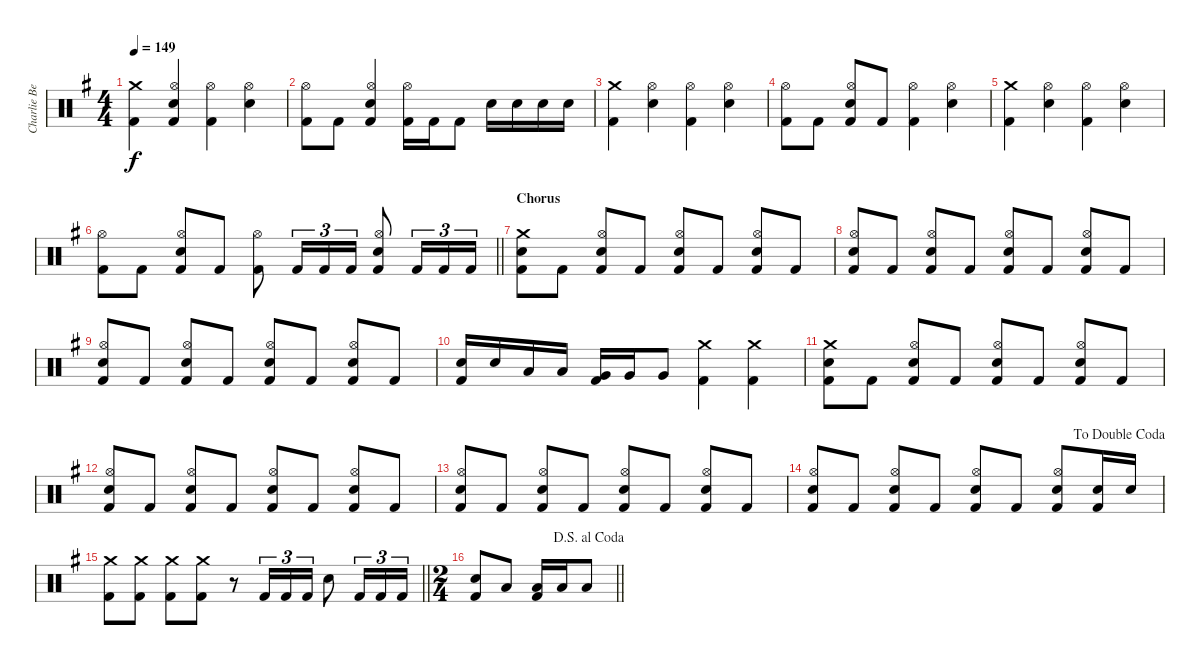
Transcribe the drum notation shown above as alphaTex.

\track ("Charlie Benate" "Charlie Be") {instrument percussion}
\staff {score}
\articulation defaults
\ts (4 4)
\tempo 149
\clef neutral
\ks g
("Crash medium (hit)" "Kick (hit) 2").4{dy f} ("Hi-Hat (open)" "Snare (hit) 2" "Kick (hit) 2").4 ("Hi-Hat (open)" "Kick (hit) 2").4 ("Hi-Hat (open)" "Snare (hit) 2").4 |
("Hi-Hat (open)" "Kick (hit) 2").8 "Kick (hit) 2".8 ("Hi-Hat (open)" "Snare (hit) 2" "Kick (hit) 2").4 ("Hi-Hat (open)" "Kick (hit) 2").16 "Kick (hit) 2".16 "Kick (hit) 2".8 "Snare (hit) 2".16 "Snare (hit) 2".16 "Snare (hit) 2".16 "Snare (hit) 2".16 |
("Crash medium (hit)" "Kick (hit) 2").4 ("Hi-Hat (open)" "Snare (hit) 2").4 ("Hi-Hat (open)" "Kick (hit) 2").4 ("Hi-Hat (open)" "Snare (hit) 2").4 |
("Hi-Hat (open)" "Kick (hit) 2").8 "Kick (hit) 2".8 ("Hi-Hat (open)" "Snare (hit) 2" "Kick (hit) 2").8 "Kick (hit) 2".8 ("Hi-Hat (open)" "Kick (hit) 2").4 ("Hi-Hat (open)" "Snare (hit) 2").4 |
("Crash medium (hit)" "Kick (hit) 2").4 ("Hi-Hat (open)" "Snare (hit) 2").4 ("Hi-Hat (open)" "Kick (hit) 2").4 ("Hi-Hat (open)" "Snare (hit) 2").4 |
\barLineRight lightlight
("Hi-Hat (open)" "Kick (hit) 2").8 "Kick (hit) 2".8 ("Hi-Hat (open)" "Snare (hit) 2" "Kick (hit) 2").8 "Kick (hit) 2".8 ("Hi-Hat (open)" "Kick (hit) 2").8 "Kick (hit) 2".16{tu (3 2)} "Kick (hit) 2".16{tu (3 2)} "Kick (hit) 2".16{tu (3 2)} ("Hi-Hat (open)" "Snare (hit) 2" "Kick (hit) 2").8 "Kick (hit) 2".16{tu (3 2)} "Kick (hit) 2".16{tu (3 2)} "Kick (hit) 2".16{tu (3 2)} |
\section ("" "Chorus")
("Crash medium (hit)" "Snare (hit) 2" "Kick (hit) 2").8 "Kick (hit) 2".8 ("Hi-Hat (open)" "Snare (hit) 2" "Kick (hit) 2").8 "Kick (hit) 2".8 ("Hi-Hat (open)" "Snare (hit) 2" "Kick (hit) 2").8 "Kick (hit) 2".8 ("Hi-Hat (open)" "Snare (hit) 2" "Kick (hit) 2").8 "Kick (hit) 2".8 |
("Hi-Hat (open)" "Snare (hit) 2" "Kick (hit) 2").8 "Kick (hit) 2".8 ("Hi-Hat (open)" "Snare (hit) 2" "Kick (hit) 2").8 "Kick (hit) 2".8 ("Hi-Hat (open)" "Snare (hit) 2" "Kick (hit) 2").8 "Kick (hit) 2".8 ("Hi-Hat (open)" "Snare (hit) 2" "Kick (hit) 2").8 "Kick (hit) 2".8 |
("Hi-Hat (open)" "Snare (hit) 2" "Kick (hit) 2").8 "Kick (hit) 2".8 ("Hi-Hat (open)" "Snare (hit) 2" "Kick (hit) 2").8 "Kick (hit) 2".8 ("Hi-Hat (open)" "Snare (hit) 2" "Kick (hit) 2").8 "Kick (hit) 2".8 ("Hi-Hat (open)" "Snare (hit) 2" "Kick (hit) 2").8 "Kick (hit) 2".8 |
("Snare (hit) 2" "Kick (hit) 2").16 "Snare (hit) 2".16 "Low Tom (hit)".16 "Low Tom (hit)".16 ("Very Low Tom (hit)" "Kick (hit) 2").16 "Very Low Tom (hit)".16 "Very Low Tom (hit)".8 ("Crash medium (hit)" "Kick (hit) 2").4 ("Crash medium (hit)" "Kick (hit) 2").4 |
("Crash medium (hit)" "Snare (hit) 2" "Kick (hit) 2").8 "Kick (hit) 2".8 ("Hi-Hat (open)" "Snare (hit) 2" "Kick (hit) 2").8 "Kick (hit) 2".8 ("Hi-Hat (open)" "Snare (hit) 2" "Kick (hit) 2").8 "Kick (hit) 2".8 ("Hi-Hat (open)" "Snare (hit) 2" "Kick (hit) 2").8 "Kick (hit) 2".8 |
("Hi-Hat (open)" "Snare (hit) 2" "Kick (hit) 2").8 "Kick (hit) 2".8 ("Hi-Hat (open)" "Snare (hit) 2" "Kick (hit) 2").8 "Kick (hit) 2".8 ("Hi-Hat (open)" "Snare (hit) 2" "Kick (hit) 2").8 "Kick (hit) 2".8 ("Hi-Hat (open)" "Snare (hit) 2" "Kick (hit) 2").8 "Kick (hit) 2".8 |
("Hi-Hat (open)" "Snare (hit) 2" "Kick (hit) 2").8 "Kick (hit) 2".8 ("Hi-Hat (open)" "Snare (hit) 2" "Kick (hit) 2").8 "Kick (hit) 2".8 ("Hi-Hat (open)" "Snare (hit) 2" "Kick (hit) 2").8 "Kick (hit) 2".8 ("Hi-Hat (open)" "Snare (hit) 2" "Kick (hit) 2").8 "Kick (hit) 2".8 |
\jump dadoublecoda
("Hi-Hat (open)" "Snare (hit) 2" "Kick (hit) 2").8 "Kick (hit) 2".8 ("Hi-Hat (open)" "Snare (hit) 2" "Kick (hit) 2").8 "Kick (hit) 2".8 ("Hi-Hat (open)" "Snare (hit) 2" "Kick (hit) 2").8 "Kick (hit) 2".8 ("Hi-Hat (open)" "Snare (hit) 2" "Kick (hit) 2").8 ("Snare (hit) 2" "Kick (hit) 2").16 "Snare (hit) 2".16 |
\barLineRight lightlight
("Crash medium (hit)" "Kick (hit) 2").8 ("Crash medium (hit)" "Kick (hit) 2").8 ("Crash medium (hit)" "Kick (hit) 2").8 ("Crash medium (hit)" "Kick (hit) 2").8 r.8 "Kick (hit) 2".16{tu (3 2)} "Kick (hit) 2".16{tu (3 2)} "Kick (hit) 2".16{tu (3 2)} "Snare (hit) 2".8 "Kick (hit) 2".16{tu (3 2)} "Kick (hit) 2".16{tu (3 2)} "Kick (hit) 2".16{tu (3 2)} |
\ts (2 4)
\jump dalsegnoalcoda
\barLineRight lightlight
("Snare (hit) 2" "Kick (hit) 2").8 "Low Tom (hit)".8 ("Low Tom (hit)" "Kick (hit) 2").16 "Low Tom (hit)".16 "Low Tom (hit)".8
